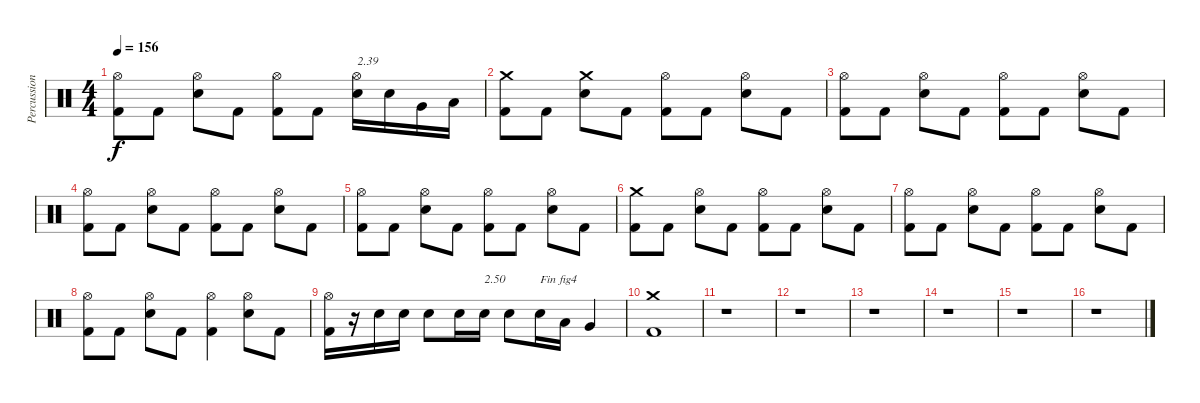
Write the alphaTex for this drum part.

\track ("Percussions" "Percussion") {instrument percussion}
\staff {score}
\articulation defaults
\ts (4 4)
\tempo 156
\clef neutral
\ks c
("Kick (hit) 2" "Hi-Hat (open)").8{dy f} "Kick (hit) 2".8 ("Electric Snare (hit)" "Hi-Hat (open)").8 "Kick (hit) 2".8 ("Kick (hit) 2" "Hi-Hat (open)").8 "Kick (hit) 2".8 ("Electric Snare (hit)" "Hi-Hat (open)").16{txt "2.39"} "Electric Snare (hit)".16 "Very Low Tom (hit)".16 "Low Floor Tom (hit)".16 |
("Kick (hit) 2" "Crash medium (hit)").8 "Kick (hit) 2".8 ("Electric Snare (hit)" "Crash medium (hit)").8 "Kick (hit) 2".8 ("Kick (hit) 2" "Hi-Hat (open)").8 "Kick (hit) 2".8 ("Electric Snare (hit)" "Hi-Hat (open)").8 "Kick (hit) 2".8 |
("Kick (hit) 2" "Hi-Hat (open)").8 "Kick (hit) 2".8 ("Electric Snare (hit)" "Hi-Hat (open)").8 "Kick (hit) 2".8 ("Kick (hit) 2" "Hi-Hat (open)").8 "Kick (hit) 2".8 ("Electric Snare (hit)" "Hi-Hat (open)").8 "Kick (hit) 2".8 |
("Kick (hit) 2" "Hi-Hat (open)").8 "Kick (hit) 2".8 ("Electric Snare (hit)" "Hi-Hat (open)").8 "Kick (hit) 2".8 ("Kick (hit) 2" "Hi-Hat (open)").8 "Kick (hit) 2".8 ("Electric Snare (hit)" "Hi-Hat (open)").8 "Kick (hit) 2".8 |
("Kick (hit) 2" "Hi-Hat (open)").8 "Kick (hit) 2".8 ("Electric Snare (hit)" "Hi-Hat (open)").8 "Kick (hit) 2".8 ("Kick (hit) 2" "Hi-Hat (open)").8 "Kick (hit) 2".8 ("Electric Snare (hit)" "Hi-Hat (open)").8 "Kick (hit) 2".8 |
("Kick (hit) 2" "Crash medium (hit)").8 "Kick (hit) 2".8 ("Electric Snare (hit)" "Hi-Hat (open)").8 "Kick (hit) 2".8 ("Kick (hit) 2" "Hi-Hat (open)").8 "Kick (hit) 2".8 ("Electric Snare (hit)" "Hi-Hat (open)").8 "Kick (hit) 2".8 |
("Kick (hit) 2" "Hi-Hat (open)").8 "Kick (hit) 2".8 ("Electric Snare (hit)" "Hi-Hat (open)").8 "Kick (hit) 2".8 ("Kick (hit) 2" "Hi-Hat (open)").8 "Kick (hit) 2".8 ("Electric Snare (hit)" "Hi-Hat (open)").8 "Kick (hit) 2".8 |
("Kick (hit) 2" "Hi-Hat (open)").8 "Kick (hit) 2".8 ("Electric Snare (hit)" "Hi-Hat (open)").8 "Kick (hit) 2".8 ("Kick (hit) 2" "Hi-Hat (open)").4 ("Electric Snare (hit)" "Hi-Hat (open)").8 "Kick (hit) 2".8 |
("Kick (hit) 2" "Hi-Hat (open)").16 r.16 "Electric Snare (hit)".16 "Electric Snare (hit)".16 "Electric Snare (hit)".8 "Electric Snare (hit)".16 "Electric Snare (hit)".16{txt "2.50"} "Electric Snare (hit)".8 "Electric Snare (hit)".16{txt "Fin fig4"} "Low Tom (hit)".16 "Very Low Tom (hit)".4 |
("Kick (hit) 2" "Crash medium (hit)").1 |
r.1 |
r.1 |
r.1 |
r.1 |
r.1 |
r.1
